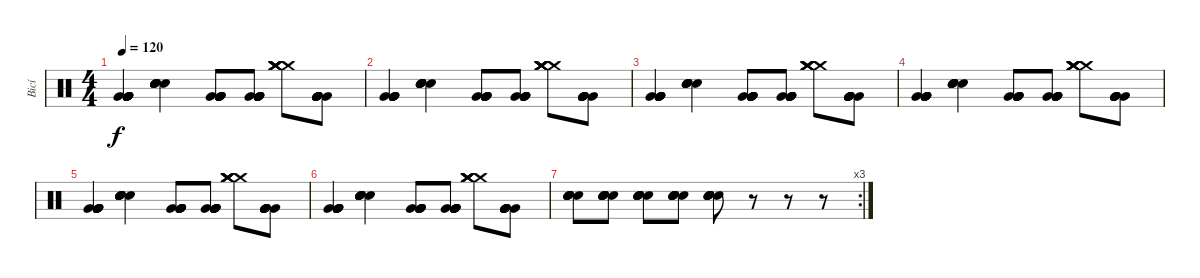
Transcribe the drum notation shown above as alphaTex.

\track ("Bicí" "Bicí") {instrument percussion}
\staff {score}
\articulation defaults
\ts (4 4)
\tempo 120
\clef neutral
\ks c
("Very Low Tom (hit)" "Very Low Tom (hit)" "Very Low Tom (hit)" "Very Low Tom (hit)" "Very Low Tom (hit)" "Very Low Tom (hit)").4{dy f} ("Electric Snare (hit)" "Electric Snare (hit)" "Electric Snare (hit)" "Electric Snare (hit)" "Electric Snare (hit)" "Electric Snare (hit)").4 ("Very Low Tom (hit)" "Very Low Tom (hit)" "Very Low Tom (hit)" "Very Low Tom (hit)" "Very Low Tom (hit)" "Very Low Tom (hit)").8 ("Very Low Tom (hit)" "Very Low Tom (hit)" "Very Low Tom (hit)" "Very Low Tom (hit)" "Very Low Tom (hit)" "Very Low Tom (hit)").8 ("Crash medium (hit)" "Crash medium (hit)" "Crash medium (hit)" "Crash medium (hit)" "Crash medium (hit)" "Crash medium (hit)").8 ("Very Low Tom (hit)" "Very Low Tom (hit)" "Very Low Tom (hit)" "Very Low Tom (hit)" "Very Low Tom (hit)" "Very Low Tom (hit)").8 |
("Very Low Tom (hit)" "Very Low Tom (hit)" "Very Low Tom (hit)" "Very Low Tom (hit)" "Very Low Tom (hit)" "Very Low Tom (hit)").4 ("Electric Snare (hit)" "Electric Snare (hit)" "Electric Snare (hit)" "Electric Snare (hit)" "Electric Snare (hit)" "Electric Snare (hit)").4 ("Very Low Tom (hit)" "Very Low Tom (hit)" "Very Low Tom (hit)" "Very Low Tom (hit)" "Very Low Tom (hit)" "Very Low Tom (hit)").8 ("Very Low Tom (hit)" "Very Low Tom (hit)" "Very Low Tom (hit)" "Very Low Tom (hit)" "Very Low Tom (hit)" "Very Low Tom (hit)").8 ("Crash medium (hit)" "Crash medium (hit)" "Crash medium (hit)" "Crash medium (hit)" "Crash medium (hit)" "Crash medium (hit)").8 ("Very Low Tom (hit)" "Very Low Tom (hit)" "Very Low Tom (hit)" "Very Low Tom (hit)" "Very Low Tom (hit)" "Very Low Tom (hit)").8 |
("Very Low Tom (hit)" "Very Low Tom (hit)" "Very Low Tom (hit)" "Very Low Tom (hit)" "Very Low Tom (hit)" "Very Low Tom (hit)").4 ("Electric Snare (hit)" "Electric Snare (hit)" "Electric Snare (hit)" "Electric Snare (hit)" "Electric Snare (hit)" "Electric Snare (hit)").4 ("Very Low Tom (hit)" "Very Low Tom (hit)" "Very Low Tom (hit)" "Very Low Tom (hit)" "Very Low Tom (hit)" "Very Low Tom (hit)").8 ("Very Low Tom (hit)" "Very Low Tom (hit)" "Very Low Tom (hit)" "Very Low Tom (hit)" "Very Low Tom (hit)" "Very Low Tom (hit)").8 ("Crash medium (hit)" "Crash medium (hit)" "Crash medium (hit)" "Crash medium (hit)" "Crash medium (hit)" "Crash medium (hit)").8 ("Very Low Tom (hit)" "Very Low Tom (hit)" "Very Low Tom (hit)" "Very Low Tom (hit)" "Very Low Tom (hit)" "Very Low Tom (hit)").8 |
("Very Low Tom (hit)" "Very Low Tom (hit)" "Very Low Tom (hit)" "Very Low Tom (hit)" "Very Low Tom (hit)" "Very Low Tom (hit)").4 ("Electric Snare (hit)" "Electric Snare (hit)" "Electric Snare (hit)" "Electric Snare (hit)" "Electric Snare (hit)" "Electric Snare (hit)").4 ("Very Low Tom (hit)" "Very Low Tom (hit)" "Very Low Tom (hit)" "Very Low Tom (hit)" "Very Low Tom (hit)" "Very Low Tom (hit)").8 ("Very Low Tom (hit)" "Very Low Tom (hit)" "Very Low Tom (hit)" "Very Low Tom (hit)" "Very Low Tom (hit)" "Very Low Tom (hit)").8 ("Crash medium (hit)" "Crash medium (hit)" "Crash medium (hit)" "Crash medium (hit)" "Crash medium (hit)" "Crash medium (hit)").8 ("Very Low Tom (hit)" "Very Low Tom (hit)" "Very Low Tom (hit)" "Very Low Tom (hit)" "Very Low Tom (hit)" "Very Low Tom (hit)").8 |
("Very Low Tom (hit)" "Very Low Tom (hit)" "Very Low Tom (hit)" "Very Low Tom (hit)" "Very Low Tom (hit)" "Very Low Tom (hit)").4 ("Electric Snare (hit)" "Electric Snare (hit)" "Electric Snare (hit)" "Electric Snare (hit)" "Electric Snare (hit)" "Electric Snare (hit)").4 ("Very Low Tom (hit)" "Very Low Tom (hit)" "Very Low Tom (hit)" "Very Low Tom (hit)" "Very Low Tom (hit)" "Very Low Tom (hit)").8 ("Very Low Tom (hit)" "Very Low Tom (hit)" "Very Low Tom (hit)" "Very Low Tom (hit)" "Very Low Tom (hit)" "Very Low Tom (hit)").8 ("Crash medium (hit)" "Crash medium (hit)" "Crash medium (hit)" "Crash medium (hit)" "Crash medium (hit)" "Crash medium (hit)").8 ("Very Low Tom (hit)" "Very Low Tom (hit)" "Very Low Tom (hit)" "Very Low Tom (hit)" "Very Low Tom (hit)" "Very Low Tom (hit)").8 |
("Very Low Tom (hit)" "Very Low Tom (hit)" "Very Low Tom (hit)" "Very Low Tom (hit)" "Very Low Tom (hit)" "Very Low Tom (hit)").4 ("Electric Snare (hit)" "Electric Snare (hit)" "Electric Snare (hit)" "Electric Snare (hit)" "Electric Snare (hit)" "Electric Snare (hit)").4 ("Very Low Tom (hit)" "Very Low Tom (hit)" "Very Low Tom (hit)" "Very Low Tom (hit)" "Very Low Tom (hit)" "Very Low Tom (hit)").8 ("Very Low Tom (hit)" "Very Low Tom (hit)" "Very Low Tom (hit)" "Very Low Tom (hit)" "Very Low Tom (hit)" "Very Low Tom (hit)").8 ("Crash medium (hit)" "Crash medium (hit)" "Crash medium (hit)" "Crash medium (hit)" "Crash medium (hit)" "Crash medium (hit)").8 ("Very Low Tom (hit)" "Very Low Tom (hit)" "Very Low Tom (hit)" "Very Low Tom (hit)" "Very Low Tom (hit)" "Very Low Tom (hit)").8 |
\rc 3
("Electric Snare (hit)" "Electric Snare (hit)" "Electric Snare (hit)" "Electric Snare (hit)" "Electric Snare (hit)" "Electric Snare (hit)").8 ("Electric Snare (hit)" "Electric Snare (hit)" "Electric Snare (hit)" "Electric Snare (hit)" "Electric Snare (hit)" "Electric Snare (hit)").8 ("Electric Snare (hit)" "Electric Snare (hit)" "Electric Snare (hit)" "Electric Snare (hit)" "Electric Snare (hit)" "Electric Snare (hit)").8 ("Electric Snare (hit)" "Electric Snare (hit)" "Electric Snare (hit)" "Electric Snare (hit)" "Electric Snare (hit)" "Electric Snare (hit)").8 ("Electric Snare (hit)" "Electric Snare (hit)" "Electric Snare (hit)" "Electric Snare (hit)" "Electric Snare (hit)" "Electric Snare (hit)").8 r.8 r.8 r.8
